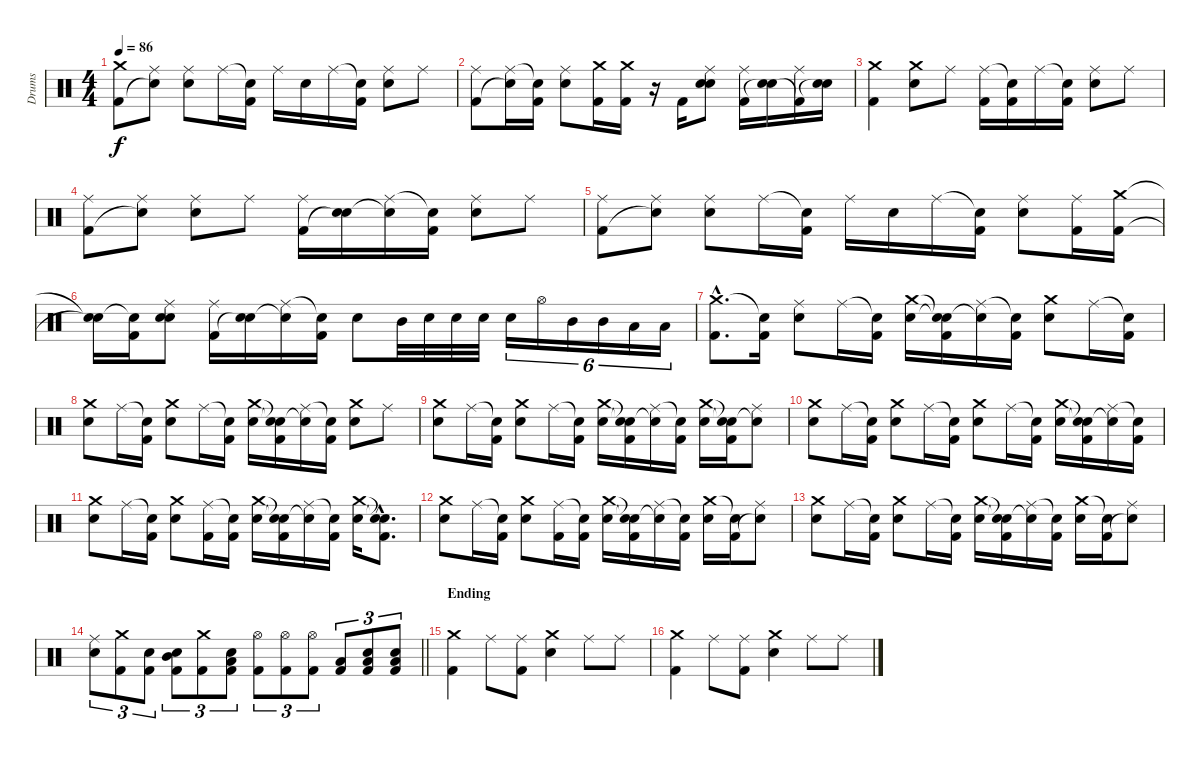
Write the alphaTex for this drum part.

\track ("Drums" "Drums") {instrument percussion}
\staff {score}
\articulation defaults
\ts (4 4)
\tempo 86
\clef neutral
\ks aminor
("Crash medium (hit)" "Kick (hit) 2").8{dy f} ("Ride (middle)" "Snare (hit)"{t}).8 ("Ride (middle)" "Electric Snare (hit)").8 "Ride (middle)".16 ("Snare (hit)"{t} "Kick (hit) 2").16 "Ride (middle)".16 "Electric Snare (hit)".16 "Ride (middle)".16 ("Snare (hit)"{t} "Kick (hit) 2").16 ("Ride (middle)" "Electric Snare (hit)").8 "Ride (middle)".8 |
("Ride (middle)" "Kick (hit) 2").8 ("Ride (middle)" "Snare (hit)"{t}).16 ("Snare (hit)"{t} "Kick (hit) 2").16 ("Ride (middle)" "Electric Snare (hit)").8 ("Crash medium (hit)" "Kick (hit) 2").16 ("Crash medium (hit)" "Kick (hit) 2").16 r.16 "Kick (hit) 2".16 ("Ride (middle)" "Electric Snare (hit)" "Snare (hit)").8 ("Ride (middle)" "Kick (hit) 2").16 ("Electric Snare (hit)" "Snare (hit)"{t}).16 ("Ride (middle)" "Kick (hit) 2"{t}).16 ("Electric Snare (hit)" "Snare (hit)"{t}).16 |
("Crash medium (hit)" "Kick (hit) 2").4 ("Crash medium (hit)" "Electric Snare (hit)").8 "Ride (middle)".8 ("Ride (middle)" "Kick (hit) 2").16 ("Snare (hit)"{t} "Kick (hit) 2").16 "Ride (middle)".16 ("Snare (hit)"{t} "Kick (hit) 2").16 ("Ride (middle)" "Electric Snare (hit)").8 "Ride (middle)".8 |
("Ride (middle)" "Kick (hit) 2").8 ("Ride (middle)" "Snare (hit)"{t}).8 ("Ride (middle)" "Electric Snare (hit)").8 "Ride (middle)".8 ("Ride (middle)" "Kick (hit) 2").16 ("Electric Snare (hit)" "Snare (hit)"{t}).16 ("Ride (middle)" "Snare (hit)"{t}).16 ("Snare (hit)"{t} "Kick (hit) 2").16 ("Ride (middle)" "Electric Snare (hit)").8 "Ride (middle)".8 |
("Ride (middle)" "Kick (hit) 2").8 ("Ride (middle)" "Snare (hit)"{t}).8 ("Ride (middle)" "Electric Snare (hit)").8 "Ride (middle)".16 ("Snare (hit)"{t} "Kick (hit) 2").16 "Ride (middle)".16 "Electric Snare (hit)".16 "Ride (middle)".16 ("Snare (hit)"{t} "Kick (hit) 2").16 ("Ride (middle)" "Electric Snare (hit)").8 ("Ride (middle)" "Kick (hit) 2").16 ("Crash medium (hit)" "Kick (hit) 2").16 |
("Snare (hit)"{t} "Snare (hit)"{t}).16 ("Snare (hit)"{t} "Kick (hit) 2").16 ("Ride (middle)" "Electric Snare (hit)" "Snare (hit)").8 ("Ride (middle)" "Kick (hit) 2").16 ("Electric Snare (hit)" "Snare (hit)"{t}).16 ("Ride (middle)" "Snare (hit)"{t}).16 ("Snare (hit)"{t} "Kick (hit) 2").16 "Electric Snare (hit)".8 "Mid Tom (hit)".32 "Electric Snare (hit)".32 "Electric Snare (hit)".32 "Electric Snare (hit)".32 "Electric Snare (hit)".16{tu (6 4)} "Hi-Hat (open)".16{tu (6 4)} "Mid Tom (hit)".16{tu (6 4)} "Mid Tom (hit)".16{tu (6 4)} "Low Floor Tom (hit)".16{tu (6 4)} "Low Floor Tom (hit)".16{tu (6 4)} |
("Crash medium (hit)"{hac} "Kick (hit) 2"{hac}).8{d} ("Snare (hit)"{t} "Kick (hit) 2").16 ("Ride (middle)" "Electric Snare (hit)").8 "Ride (middle)".16 ("Snare (hit)"{t} "Kick (hit) 2").16 ("Crash medium (hit)" "Electric Snare (hit)").16 ("Snare (hit)"{t} "Snare (hit)"{t} "Kick (hit) 2").16 ("Ride (middle)" "Snare (hit)"{t}).16 ("Snare (hit)"{t} "Kick (hit) 2").16 ("Crash medium (hit)" "Electric Snare (hit)").8 "Ride (middle)".16 ("Snare (hit)"{t} "Kick (hit) 2").16 |
("Crash medium (hit)" "Electric Snare (hit)").8 "Ride (middle)".16 ("Snare (hit)"{t} "Kick (hit) 2").16 ("Crash medium (hit)" "Electric Snare (hit)").8 "Ride (middle)".16 ("Snare (hit)"{t} "Kick (hit) 2").16 ("Crash medium (hit)" "Electric Snare (hit)").16 ("Snare (hit)"{t} "Snare (hit)"{t} "Kick (hit) 2").16 ("Ride (middle)" "Snare (hit)"{t}).16 ("Snare (hit)"{t} "Kick (hit) 2").16 ("Crash medium (hit)" "Electric Snare (hit)").8 "Ride (middle)".8 |
("Crash medium (hit)" "Electric Snare (hit)").8 "Ride (middle)".16 ("Snare (hit)"{t} "Kick (hit) 2").16 ("Crash medium (hit)" "Electric Snare (hit)").8 "Ride (middle)".16 ("Snare (hit)"{t} "Kick (hit) 2").16 ("Crash medium (hit)" "Electric Snare (hit)").16 ("Snare (hit)"{t} "Snare (hit)"{t} "Kick (hit) 2").16 ("Ride (middle)" "Snare (hit)"{t}).16 ("Snare (hit)"{t} "Kick (hit) 2").16 ("Crash medium (hit)" "Electric Snare (hit)").16 ("Snare (hit)"{t} "Snare (hit)"{t} "Kick (hit) 2").16 ("Ride (middle)" "Snare (hit)"{t}).8 |
("Crash medium (hit)" "Electric Snare (hit)").8 "Ride (middle)".16 ("Snare (hit)"{t} "Kick (hit) 2").16 ("Crash medium (hit)" "Electric Snare (hit)").8 "Ride (middle)".16 ("Snare (hit)"{t} "Kick (hit) 2").16 ("Crash medium (hit)" "Electric Snare (hit)").8 "Ride (middle)".16 ("Snare (hit)"{t} "Kick (hit) 2").16 ("Crash medium (hit)" "Electric Snare (hit)").16 ("Snare (hit)"{t} "Snare (hit)"{t} "Kick (hit) 2").16 ("Ride (middle)" "Snare (hit)"{t}).16 ("Snare (hit)"{t} "Kick (hit) 2").16 |
("Crash medium (hit)" "Electric Snare (hit)").8 "Ride (middle)".16 ("Snare (hit)"{t} "Kick (hit) 2").16 ("Crash medium (hit)" "Electric Snare (hit)").8 ("Ride (middle)" "Kick (hit) 2").16 ("Snare (hit)"{t} "Kick (hit) 2").16 ("Crash medium (hit)" "Electric Snare (hit)").16 ("Snare (hit)"{t} "Snare (hit)"{t} "Kick (hit) 2").16 ("Ride (middle)" "Snare (hit)"{t}).16 ("Snare (hit)"{t} "Kick (hit) 2").16 ("Crash medium (hit)" "Electric Snare (hit)").16 ("Snare (hit)"{hac t} "Snare (hit)"{hac t} "Kick (hit) 2"{hac}).8{d} |
("Crash medium (hit)" "Electric Snare (hit)").8 "Ride (middle)".16 ("Snare (hit)"{t} "Kick (hit) 2").16 ("Crash medium (hit)" "Electric Snare (hit)").8 ("Ride (middle)" "Kick (hit) 2").16 ("Snare (hit)"{t} "Kick (hit) 2").16 ("Crash medium (hit)" "Electric Snare (hit)").16 ("Snare (hit)"{t} "Snare (hit)"{t} "Kick (hit) 2").16 ("Ride (middle)" "Snare (hit)"{t}).16 ("Snare (hit)"{t} "Kick (hit) 2").16 ("Crash medium (hit)" "Electric Snare (hit)").16 ("Snare (hit)"{t} "Kick (hit) 2").16 ("Ride (middle)" "Snare (hit)"{t}).8 |
("Crash medium (hit)" "Electric Snare (hit)").8 "Ride (middle)".16 ("Snare (hit)"{t} "Kick (hit) 2").16 ("Crash medium (hit)" "Electric Snare (hit)").8 "Ride (middle)".16 ("Snare (hit)"{t} "Kick (hit) 2").16 ("Crash medium (hit)" "Electric Snare (hit)").16 ("Snare (hit)"{t} "Snare (hit)"{t} "Kick (hit) 2").16 ("Ride (middle)" "Snare (hit)"{t}).16 ("Snare (hit)"{t} "Kick (hit) 2").16 ("Crash medium (hit)" "Electric Snare (hit)").16 ("Snare (hit)"{t} "Kick (hit) 2").16 ("Ride (middle)" "Snare (hit)"{t}).8 |
\barLineRight lightlight
("Ride (middle)" "Electric Snare (hit)").8{tu (3 2)} ("Crash medium (hit)" "Kick (hit) 2").8{tu (3 2)} ("Electric Snare (hit)" "Kick (hit) 2").8{tu (3 2)} ("Electric Snare (hit)" "Mid Tom (hit)" "Kick (hit) 2").8{tu (3 2)} ("Crash medium (hit)" "Kick (hit) 2").8{tu (3 2)} ("Electric Snare (hit)" "Low Tom (hit)" "Kick (hit) 2").8{tu (3 2)} ("Hi-Hat (open)" "Kick (hit) 2").8{tu (3 2)} ("Hi-Hat (open)" "Kick (hit) 2").8{tu (3 2)} ("Hi-Hat (open)" "Kick (hit) 2").8{tu (3 2)} ("Low Floor Tom (hit)" "Kick (hit) 2").8{tu (3 2)} ("Electric Snare (hit)" "Low Floor Tom (hit)" "Kick (hit) 2").8{tu (3 2)} ("Electric Snare (hit)" "Low Floor Tom (hit)" "Kick (hit) 2").8{tu (3 2)} |
\section ("" "Ending")
("Crash medium (hit)" "Kick (hit) 2").4 "Ride (middle)".8 ("Ride (middle)" "Kick (hit) 2").8 ("Crash medium (hit)" "Electric Snare (hit)").4 "Ride (middle)".8 "Ride (middle)".8 |
("Crash medium (hit)" "Kick (hit) 2").4 "Ride (middle)".8 ("Ride (middle)" "Kick (hit) 2").8 ("Crash medium (hit)" "Electric Snare (hit)").4 "Ride (middle)".8 "Ride (middle)".8
